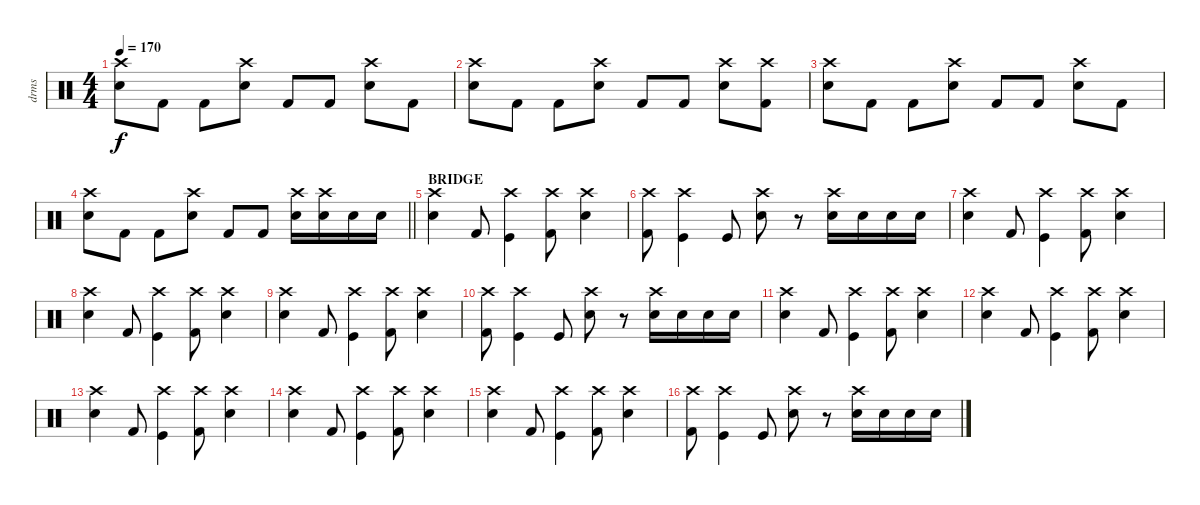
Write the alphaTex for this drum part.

\track ("drms" "drms") {instrument percussion}
\staff {score}
\articulation defaults
\ts (4 4)
\tempo 170
\clef neutral
\ks c
("Crash high (hit)" "Snare (hit) 2").8{dy f} "Kick (hit) 2".8 "Kick (hit) 2".8 ("Crash high (hit)" "Snare (hit) 2").8 "Kick (hit) 2".8 "Kick (hit) 2".8 ("Crash high (hit)" "Snare (hit) 2").8 "Kick (hit) 2".8 |
("Crash high (hit)" "Snare (hit) 2").8 "Kick (hit) 2".8 "Kick (hit) 2".8 ("Crash high (hit)" "Snare (hit) 2").8 "Kick (hit) 2".8 "Kick (hit) 2".8 ("Crash high (hit)" "Snare (hit) 2").8 ("Crash high (hit)" "Kick (hit) 2").8 |
("Crash high (hit)" "Snare (hit) 2").8 "Kick (hit) 2".8 "Kick (hit) 2".8 ("Crash high (hit)" "Snare (hit) 2").8 "Kick (hit) 2".8 "Kick (hit) 2".8 ("Crash high (hit)" "Snare (hit) 2").8 "Kick (hit) 2".8 |
\barLineRight lightlight
("Crash high (hit)" "Snare (hit) 2").8 "Kick (hit) 2".8 "Kick (hit) 2".8 ("Crash high (hit)" "Snare (hit) 2").8 "Kick (hit) 2".8 "Kick (hit) 2".8 ("Crash high (hit)" "Electric Snare (hit)").16 ("Crash high (hit)" "Electric Snare (hit)").16 "Electric Snare (hit)".16 "Electric Snare (hit)".16 |
\section ("" "BRIDGE")
("Crash high (hit)" "Snare (hit) 2").4 "Kick (hit) 2".8 ("Crash high (hit)" "Kick (hit)").4 ("Crash high (hit)" "Kick (hit) 2").8 ("Crash high (hit)" "Snare (hit) 2").4 |
("Crash high (hit)" "Kick (hit) 2").8 ("Crash high (hit)" "Kick (hit)").4 "Kick (hit)".8 ("Crash high (hit)" "Snare (hit) 2").8 r.8 ("Crash high (hit)" "Snare (hit) 2").16 "Snare (hit) 2".16 "Snare (hit) 2".16 "Snare (hit) 2".16 |
("Crash high (hit)" "Snare (hit) 2").4 "Kick (hit) 2".8 ("Crash high (hit)" "Kick (hit)").4 ("Crash high (hit)" "Kick (hit) 2").8 ("Crash high (hit)" "Snare (hit) 2").4 |
("Crash high (hit)" "Snare (hit) 2").4 "Kick (hit) 2".8 ("Crash high (hit)" "Kick (hit)").4 ("Crash high (hit)" "Kick (hit) 2").8 ("Crash high (hit)" "Snare (hit) 2").4 |
("Crash high (hit)" "Snare (hit) 2").4 "Kick (hit) 2".8 ("Crash high (hit)" "Kick (hit)").4 ("Crash high (hit)" "Kick (hit) 2").8 ("Crash high (hit)" "Snare (hit) 2").4 |
("Crash high (hit)" "Kick (hit) 2").8 ("Crash high (hit)" "Kick (hit)").4 "Kick (hit)".8 ("Crash high (hit)" "Snare (hit) 2").8 r.8 ("Crash high (hit)" "Snare (hit) 2").16 "Snare (hit) 2".16 "Snare (hit) 2".16 "Snare (hit) 2".16 |
("Crash high (hit)" "Snare (hit) 2").4 "Kick (hit) 2".8 ("Crash high (hit)" "Kick (hit)").4 ("Crash high (hit)" "Kick (hit) 2").8 ("Crash high (hit)" "Snare (hit) 2").4 |
("Crash high (hit)" "Snare (hit) 2").4 "Kick (hit) 2".8 ("Crash high (hit)" "Kick (hit)").4 ("Crash high (hit)" "Kick (hit) 2").8 ("Crash high (hit)" "Snare (hit) 2").4 |
("Crash high (hit)" "Snare (hit) 2").4 "Kick (hit) 2".8 ("Crash high (hit)" "Kick (hit)").4 ("Crash high (hit)" "Kick (hit) 2").8 ("Crash high (hit)" "Snare (hit) 2").4 |
("Crash high (hit)" "Snare (hit) 2").4 "Kick (hit) 2".8 ("Crash high (hit)" "Kick (hit)").4 ("Crash high (hit)" "Kick (hit) 2").8 ("Crash high (hit)" "Snare (hit) 2").4 |
("Crash high (hit)" "Snare (hit) 2").4 "Kick (hit) 2".8 ("Crash high (hit)" "Kick (hit)").4 ("Crash high (hit)" "Kick (hit) 2").8 ("Crash high (hit)" "Snare (hit) 2").4 |
("Crash high (hit)" "Kick (hit) 2").8 ("Crash high (hit)" "Kick (hit)").4 "Kick (hit)".8 ("Crash high (hit)" "Snare (hit) 2").8 r.8 ("Crash high (hit)" "Snare (hit) 2").16 "Snare (hit) 2".16 "Snare (hit) 2".16 "Snare (hit) 2".16
